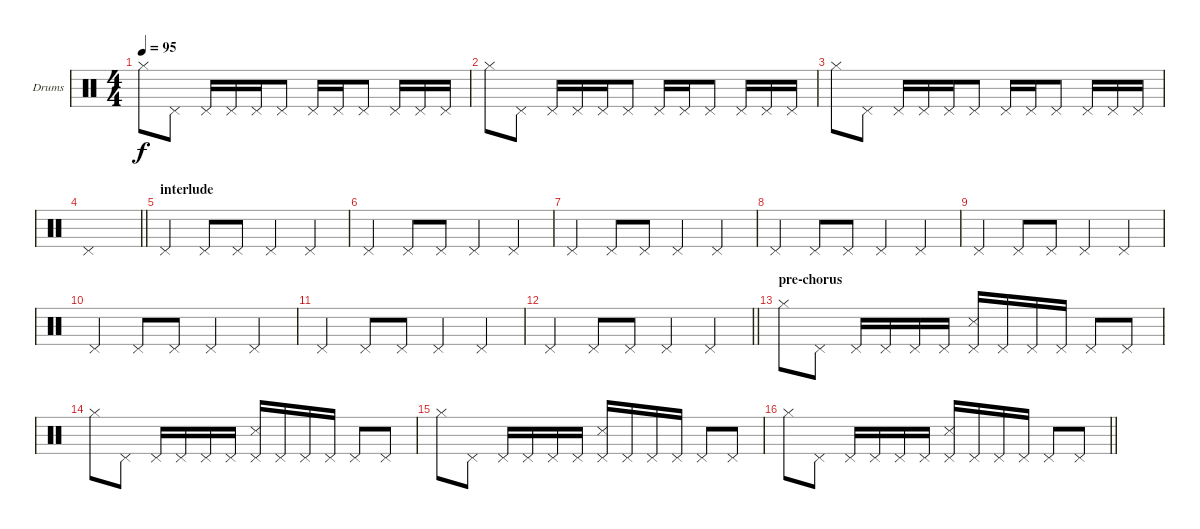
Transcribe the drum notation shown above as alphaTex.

\bracketExtendMode groupsimilarinstruments
\firstSystemTrackNameOrientation horizontal
\otherSystemsTrackNameOrientation horizontal
\track ("Drumkit" "Drums") {instrument percussion}
\staff {score}
\articulation defaults
\ts (4 4)
\tempo 95
\clef neutral
\ks c "Hi-Hat (closed)".8{dy f} "Pedal Hi-Hat (hit)".8 "Pedal Hi-Hat (hit)".16 "Pedal Hi-Hat (hit)".16 "Pedal Hi-Hat (hit)".16 "Pedal Hi-Hat (hit)".8 "Pedal Hi-Hat (hit)".16 "Pedal Hi-Hat (hit)".16 "Pedal Hi-Hat (hit)".8 "Pedal Hi-Hat (hit)".16 "Pedal Hi-Hat (hit)".16 "Pedal Hi-Hat (hit)".16
|
"Hi-Hat (closed)".8 "Pedal Hi-Hat (hit)".8 "Pedal Hi-Hat (hit)".16 "Pedal Hi-Hat (hit)".16 "Pedal Hi-Hat (hit)".16 "Pedal Hi-Hat (hit)".8 "Pedal Hi-Hat (hit)".16 "Pedal Hi-Hat (hit)".16 "Pedal Hi-Hat (hit)".8 "Pedal Hi-Hat (hit)".16 "Pedal Hi-Hat (hit)".16 "Pedal Hi-Hat (hit)".16 |
"Hi-Hat (closed)".8 "Pedal Hi-Hat (hit)".8 "Pedal Hi-Hat (hit)".16 "Pedal Hi-Hat (hit)".16 "Pedal Hi-Hat (hit)".16 "Pedal Hi-Hat (hit)".8 "Pedal Hi-Hat (hit)".16 "Pedal Hi-Hat (hit)".16 "Pedal Hi-Hat (hit)".8 "Pedal Hi-Hat (hit)".16 "Pedal Hi-Hat (hit)".16 "Pedal Hi-Hat (hit)".16 |
\barLineRight lightlight "Pedal Hi-Hat (hit)".1
|
\section ("" "interlude")
"Pedal Hi-Hat (hit)".4 "Pedal Hi-Hat (hit)".8 "Pedal Hi-Hat (hit)".8 "Pedal Hi-Hat (hit)".4 "Pedal Hi-Hat (hit)".4 |
"Pedal Hi-Hat (hit)".4 "Pedal Hi-Hat (hit)".8 "Pedal Hi-Hat (hit)".8 "Pedal Hi-Hat (hit)".4 "Pedal Hi-Hat (hit)".4 |
"Pedal Hi-Hat (hit)".4 "Pedal Hi-Hat (hit)".8 "Pedal Hi-Hat (hit)".8 "Pedal Hi-Hat (hit)".4 "Pedal Hi-Hat (hit)".4 |
"Pedal Hi-Hat (hit)".4 "Pedal Hi-Hat (hit)".8 "Pedal Hi-Hat (hit)".8 "Pedal Hi-Hat (hit)".4 "Pedal Hi-Hat (hit)".4 |
"Pedal Hi-Hat (hit)".4 "Pedal Hi-Hat (hit)".8 "Pedal Hi-Hat (hit)".8 "Pedal Hi-Hat (hit)".4 "Pedal Hi-Hat (hit)".4 |
"Pedal Hi-Hat (hit)".4 "Pedal Hi-Hat (hit)".8 "Pedal Hi-Hat (hit)".8 "Pedal Hi-Hat (hit)".4 "Pedal Hi-Hat (hit)".4 |
"Pedal Hi-Hat (hit)".4 "Pedal Hi-Hat (hit)".8 "Pedal Hi-Hat (hit)".8 "Pedal Hi-Hat (hit)".4 "Pedal Hi-Hat (hit)".4 |
\barLineRight lightlight "Pedal Hi-Hat (hit)".4 "Pedal Hi-Hat (hit)".8 "Pedal Hi-Hat (hit)".8 "Pedal Hi-Hat (hit)".4 "Pedal Hi-Hat (hit)".4
|
\section ("" "pre-chorus")
"Hi-Hat (closed)".8 "Pedal Hi-Hat (hit)".8 "Pedal Hi-Hat (hit)".16 "Pedal Hi-Hat (hit)".16 "Pedal Hi-Hat (hit)".16 "Pedal Hi-Hat (hit)".16 ("Snare (side stick) 3" "Pedal Hi-Hat (hit)").16 "Pedal Hi-Hat (hit)".16 "Pedal Hi-Hat (hit)".16 "Pedal Hi-Hat (hit)".16 "Pedal Hi-Hat (hit)".8 "Pedal Hi-Hat (hit)".8 |
"Hi-Hat (closed)".8 "Pedal Hi-Hat (hit)".8 "Pedal Hi-Hat (hit)".16 "Pedal Hi-Hat (hit)".16 "Pedal Hi-Hat (hit)".16 "Pedal Hi-Hat (hit)".16 ("Snare (side stick) 3" "Pedal Hi-Hat (hit)").16 "Pedal Hi-Hat (hit)".16 "Pedal Hi-Hat (hit)".16 "Pedal Hi-Hat (hit)".16 "Pedal Hi-Hat (hit)".8 "Pedal Hi-Hat (hit)".8 |
"Hi-Hat (closed)".8 "Pedal Hi-Hat (hit)".8 "Pedal Hi-Hat (hit)".16 "Pedal Hi-Hat (hit)".16 "Pedal Hi-Hat (hit)".16 "Pedal Hi-Hat (hit)".16 ("Snare (side stick) 3" "Pedal Hi-Hat (hit)").16 "Pedal Hi-Hat (hit)".16 "Pedal Hi-Hat (hit)".16 "Pedal Hi-Hat (hit)".16 "Pedal Hi-Hat (hit)".8 "Pedal Hi-Hat (hit)".8 |
\barLineRight lightlight "Hi-Hat (closed)".8 "Pedal Hi-Hat (hit)".8 "Pedal Hi-Hat (hit)".16 "Pedal Hi-Hat (hit)".16 "Pedal Hi-Hat (hit)".16 "Pedal Hi-Hat (hit)".16
("Snare (side stick) 3" "Pedal Hi-Hat (hit)").16 "Pedal Hi-Hat (hit)".16 "Pedal Hi-Hat (hit)".16 "Pedal Hi-Hat (hit)".16 "Pedal Hi-Hat (hit)".8 "Pedal Hi-Hat (hit)".8
